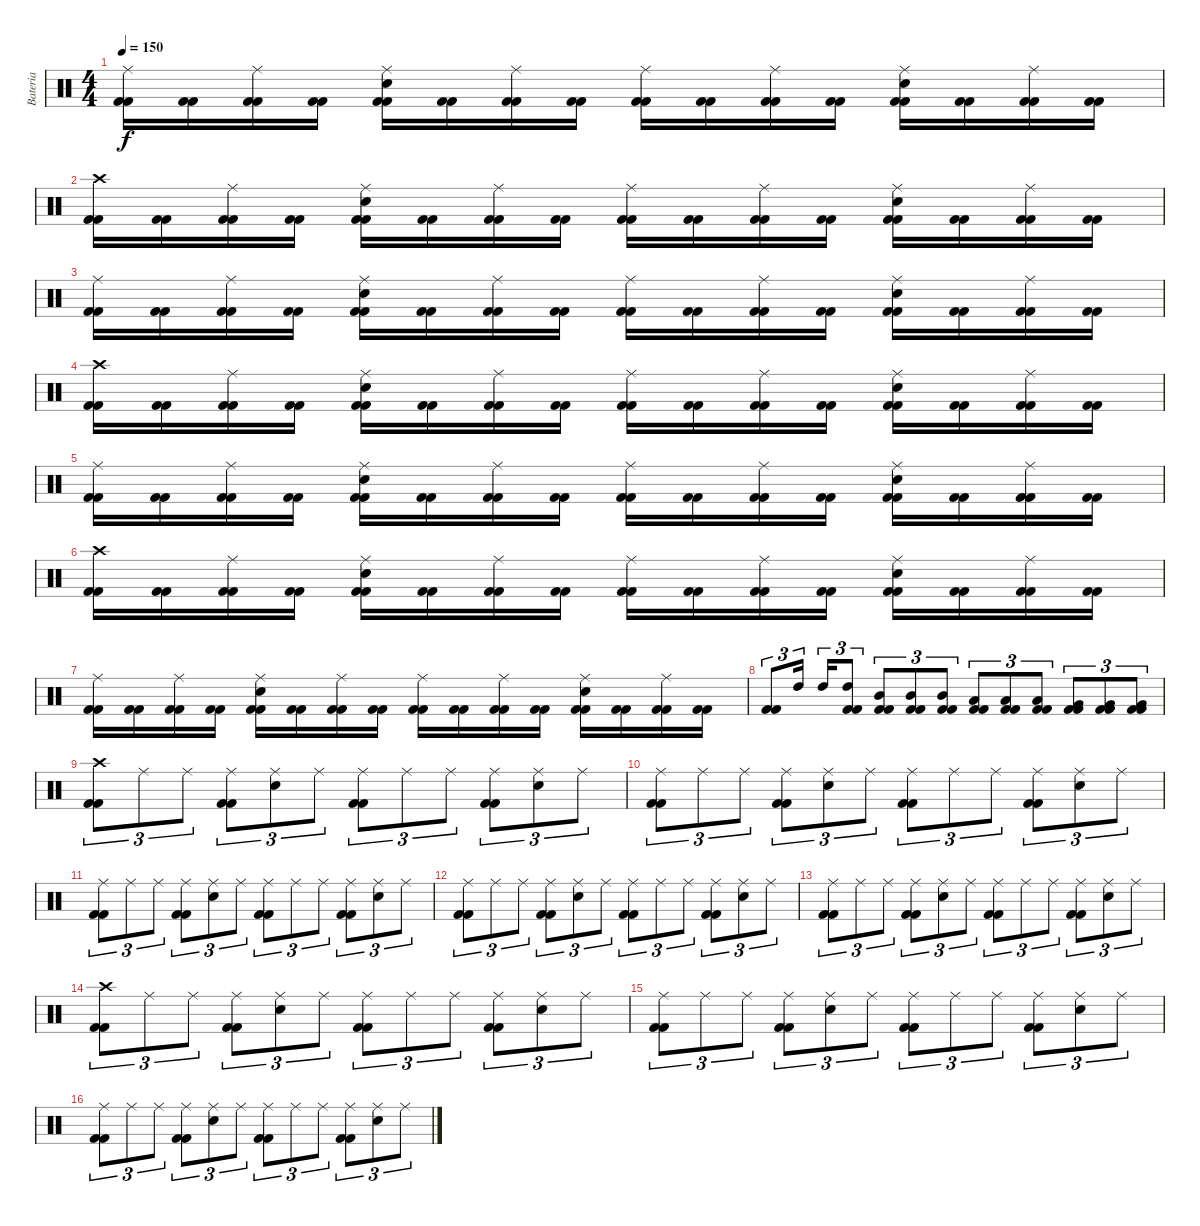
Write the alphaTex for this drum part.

\track ("Bateria" "Bateria") {instrument percussion}
\staff {score}
\articulation defaults
\ts (4 4)
\tempo 150
\clef neutral
\ks c
("Kick (hit) 2" "Kick (hit) 2" "Ride (middle)").16{dy f} ("Kick (hit) 2" "Kick (hit) 2").16 ("Kick (hit) 2" "Kick (hit) 2" "Ride (middle)").16 ("Kick (hit) 2" "Kick (hit) 2").16 ("Kick (hit) 2" "Kick (hit) 2" "Snare (hit) 2" "Ride (middle)").16 ("Kick (hit) 2" "Kick (hit) 2").16 ("Kick (hit) 2" "Kick (hit) 2" "Ride (middle)").16 ("Kick (hit) 2" "Kick (hit) 2").16 ("Kick (hit) 2" "Kick (hit) 2" "Ride (middle)").16 ("Kick (hit) 2" "Kick (hit) 2").16 ("Kick (hit) 2" "Kick (hit) 2" "Ride (middle)").16 ("Kick (hit) 2" "Kick (hit) 2").16 ("Kick (hit) 2" "Kick (hit) 2" "Snare (hit) 2" "Ride (middle)").16 ("Kick (hit) 2" "Kick (hit) 2").16 ("Kick (hit) 2" "Kick (hit) 2" "Ride (middle)").16 ("Kick (hit) 2" "Kick (hit) 2").16 |
("Kick (hit) 2" "Kick (hit) 2" "Crash high (hit)").16 ("Kick (hit) 2" "Kick (hit) 2").16 ("Kick (hit) 2" "Kick (hit) 2" "Ride (middle)").16 ("Kick (hit) 2" "Kick (hit) 2").16 ("Kick (hit) 2" "Kick (hit) 2" "Snare (hit) 2" "Ride (middle)").16 ("Kick (hit) 2" "Kick (hit) 2").16 ("Kick (hit) 2" "Kick (hit) 2" "Ride (middle)").16 ("Kick (hit) 2" "Kick (hit) 2").16 ("Kick (hit) 2" "Kick (hit) 2" "Ride (middle)").16 ("Kick (hit) 2" "Kick (hit) 2").16 ("Kick (hit) 2" "Kick (hit) 2" "Ride (middle)").16 ("Kick (hit) 2" "Kick (hit) 2").16 ("Kick (hit) 2" "Kick (hit) 2" "Snare (hit) 2" "Ride (middle)").16 ("Kick (hit) 2" "Kick (hit) 2").16 ("Kick (hit) 2" "Kick (hit) 2" "Ride (middle)").16 ("Kick (hit) 2" "Kick (hit) 2").16 |
("Kick (hit) 2" "Kick (hit) 2" "Ride (middle)").16 ("Kick (hit) 2" "Kick (hit) 2").16 ("Kick (hit) 2" "Kick (hit) 2" "Ride (middle)").16 ("Kick (hit) 2" "Kick (hit) 2").16 ("Kick (hit) 2" "Kick (hit) 2" "Snare (hit) 2" "Ride (middle)").16 ("Kick (hit) 2" "Kick (hit) 2").16 ("Kick (hit) 2" "Kick (hit) 2" "Ride (middle)").16 ("Kick (hit) 2" "Kick (hit) 2").16 ("Kick (hit) 2" "Kick (hit) 2" "Ride (middle)").16 ("Kick (hit) 2" "Kick (hit) 2").16 ("Kick (hit) 2" "Kick (hit) 2" "Ride (middle)").16 ("Kick (hit) 2" "Kick (hit) 2").16 ("Kick (hit) 2" "Kick (hit) 2" "Snare (hit) 2" "Ride (middle)").16 ("Kick (hit) 2" "Kick (hit) 2").16 ("Kick (hit) 2" "Kick (hit) 2" "Ride (middle)").16 ("Kick (hit) 2" "Kick (hit) 2").16 |
("Kick (hit) 2" "Kick (hit) 2" "Crash high (hit)").16 ("Kick (hit) 2" "Kick (hit) 2").16 ("Kick (hit) 2" "Kick (hit) 2" "Ride (middle)").16 ("Kick (hit) 2" "Kick (hit) 2").16 ("Kick (hit) 2" "Kick (hit) 2" "Snare (hit) 2" "Ride (middle)").16 ("Kick (hit) 2" "Kick (hit) 2").16 ("Kick (hit) 2" "Kick (hit) 2" "Ride (middle)").16 ("Kick (hit) 2" "Kick (hit) 2").16 ("Kick (hit) 2" "Kick (hit) 2" "Ride (middle)").16 ("Kick (hit) 2" "Kick (hit) 2").16 ("Kick (hit) 2" "Kick (hit) 2" "Ride (middle)").16 ("Kick (hit) 2" "Kick (hit) 2").16 ("Kick (hit) 2" "Kick (hit) 2" "Snare (hit) 2" "Ride (middle)").16 ("Kick (hit) 2" "Kick (hit) 2").16 ("Kick (hit) 2" "Kick (hit) 2" "Ride (middle)").16 ("Kick (hit) 2" "Kick (hit) 2").16 |
("Kick (hit) 2" "Kick (hit) 2" "Ride (middle)").16 ("Kick (hit) 2" "Kick (hit) 2").16 ("Kick (hit) 2" "Kick (hit) 2" "Ride (middle)").16 ("Kick (hit) 2" "Kick (hit) 2").16 ("Kick (hit) 2" "Kick (hit) 2" "Snare (hit) 2" "Ride (middle)").16 ("Kick (hit) 2" "Kick (hit) 2").16 ("Kick (hit) 2" "Kick (hit) 2" "Ride (middle)").16 ("Kick (hit) 2" "Kick (hit) 2").16 ("Kick (hit) 2" "Kick (hit) 2" "Ride (middle)").16 ("Kick (hit) 2" "Kick (hit) 2").16 ("Kick (hit) 2" "Kick (hit) 2" "Ride (middle)").16 ("Kick (hit) 2" "Kick (hit) 2").16 ("Kick (hit) 2" "Kick (hit) 2" "Snare (hit) 2" "Ride (middle)").16 ("Kick (hit) 2" "Kick (hit) 2").16 ("Kick (hit) 2" "Kick (hit) 2" "Ride (middle)").16 ("Kick (hit) 2" "Kick (hit) 2").16 |
("Kick (hit) 2" "Kick (hit) 2" "Crash high (hit)").16 ("Kick (hit) 2" "Kick (hit) 2").16 ("Kick (hit) 2" "Kick (hit) 2" "Ride (middle)").16 ("Kick (hit) 2" "Kick (hit) 2").16 ("Kick (hit) 2" "Kick (hit) 2" "Snare (hit) 2" "Ride (middle)").16 ("Kick (hit) 2" "Kick (hit) 2").16 ("Kick (hit) 2" "Kick (hit) 2" "Ride (middle)").16 ("Kick (hit) 2" "Kick (hit) 2").16 ("Kick (hit) 2" "Kick (hit) 2" "Ride (middle)").16 ("Kick (hit) 2" "Kick (hit) 2").16 ("Kick (hit) 2" "Kick (hit) 2" "Ride (middle)").16 ("Kick (hit) 2" "Kick (hit) 2").16 ("Kick (hit) 2" "Kick (hit) 2" "Snare (hit) 2" "Ride (middle)").16 ("Kick (hit) 2" "Kick (hit) 2").16 ("Kick (hit) 2" "Kick (hit) 2" "Ride (middle)").16 ("Kick (hit) 2" "Kick (hit) 2").16 |
("Kick (hit) 2" "Kick (hit) 2" "Ride (middle)").16 ("Kick (hit) 2" "Kick (hit) 2").16 ("Kick (hit) 2" "Kick (hit) 2" "Ride (middle)").16 ("Kick (hit) 2" "Kick (hit) 2").16 ("Kick (hit) 2" "Kick (hit) 2" "Snare (hit) 2" "Ride (middle)").16 ("Kick (hit) 2" "Kick (hit) 2").16 ("Kick (hit) 2" "Kick (hit) 2" "Ride (middle)").16 ("Kick (hit) 2" "Kick (hit) 2").16 ("Kick (hit) 2" "Kick (hit) 2" "Ride (middle)").16 ("Kick (hit) 2" "Kick (hit) 2").16 ("Kick (hit) 2" "Kick (hit) 2" "Ride (middle)").16 ("Kick (hit) 2" "Kick (hit) 2").16 ("Kick (hit) 2" "Kick (hit) 2" "Snare (hit) 2" "Ride (middle)").16 ("Kick (hit) 2" "Kick (hit) 2").16 ("Kick (hit) 2" "Kick (hit) 2" "Ride (middle)").16 ("Kick (hit) 2" "Kick (hit) 2").16 |
("Kick (hit) 2" "Kick (hit) 2").8{tu (3 2)} "High Tom (hit)".16{tu (3 2)} "High Tom (hit)".16{tu (3 2)} ("Kick (hit) 2" "Kick (hit) 2" "High Tom (hit)").8{tu (3 2)} ("Kick (hit) 2" "Kick (hit) 2" "Mid Tom (hit)").8{tu (3 2)} ("Kick (hit) 2" "Kick (hit) 2" "Mid Tom (hit)").8{tu (3 2)} ("Kick (hit) 2" "Kick (hit) 2" "Mid Tom (hit)").8{tu (3 2)} ("Kick (hit) 2" "Kick (hit) 2" "Low Tom (hit)").8{tu (3 2)} ("Kick (hit) 2" "Kick (hit) 2" "Low Tom (hit)").8{tu (3 2)} ("Kick (hit) 2" "Kick (hit) 2" "Low Tom (hit)").8{tu (3 2)} ("Kick (hit) 2" "Kick (hit) 2" "Very Low Tom (hit)").8{tu (3 2)} ("Kick (hit) 2" "Kick (hit) 2" "Very Low Tom (hit)").8{tu (3 2)} ("Kick (hit) 2" "Kick (hit) 2" "Very Low Tom (hit)").8{tu (3 2)} |
("Kick (hit) 2" "Kick (hit) 2" "Crash high (hit)").8{tu (3 2)} "Ride (middle)".8{tu (3 2)} "Ride (middle)".8{tu (3 2)} ("Kick (hit) 2" "Kick (hit) 2" "Ride (middle)").8{tu (3 2)} ("Snare (hit) 2" "Ride (middle)").8{tu (3 2)} "Ride (middle)".8{tu (3 2)} ("Kick (hit) 2" "Kick (hit) 2" "Ride (middle)").8{tu (3 2)} "Ride (middle)".8{tu (3 2)} "Ride (middle)".8{tu (3 2)} ("Kick (hit) 2" "Kick (hit) 2" "Ride (middle)").8{tu (3 2)} ("Snare (hit) 2" "Ride (middle)").8{tu (3 2)} "Ride (middle)".8{tu (3 2)} |
("Kick (hit) 2" "Kick (hit) 2" "Ride (middle)").8{tu (3 2)} "Ride (middle)".8{tu (3 2)} "Ride (middle)".8{tu (3 2)} ("Kick (hit) 2" "Kick (hit) 2" "Ride (middle)").8{tu (3 2)} ("Snare (hit) 2" "Ride (middle)").8{tu (3 2)} "Ride (middle)".8{tu (3 2)} ("Kick (hit) 2" "Kick (hit) 2" "Ride (middle)").8{tu (3 2)} "Ride (middle)".8{tu (3 2)} "Ride (middle)".8{tu (3 2)} ("Kick (hit) 2" "Kick (hit) 2" "Ride (middle)").8{tu (3 2)} ("Snare (hit) 2" "Ride (middle)").8{tu (3 2)} "Ride (middle)".8{tu (3 2)} |
("Kick (hit) 2" "Kick (hit) 2" "Ride (middle)").8{tu (3 2)} "Ride (middle)".8{tu (3 2)} "Ride (middle)".8{tu (3 2)} ("Kick (hit) 2" "Kick (hit) 2" "Ride (middle)").8{tu (3 2)} ("Snare (hit) 2" "Ride (middle)").8{tu (3 2)} "Ride (middle)".8{tu (3 2)} ("Kick (hit) 2" "Kick (hit) 2" "Ride (middle)").8{tu (3 2)} "Ride (middle)".8{tu (3 2)} "Ride (middle)".8{tu (3 2)} ("Kick (hit) 2" "Kick (hit) 2" "Ride (middle)").8{tu (3 2)} ("Snare (hit) 2" "Ride (middle)").8{tu (3 2)} "Ride (middle)".8{tu (3 2)} |
("Kick (hit) 2" "Kick (hit) 2" "Ride (middle)").8{tu (3 2)} "Ride (middle)".8{tu (3 2)} "Ride (middle)".8{tu (3 2)} ("Kick (hit) 2" "Kick (hit) 2" "Ride (middle)").8{tu (3 2)} ("Snare (hit) 2" "Ride (middle)").8{tu (3 2)} "Ride (middle)".8{tu (3 2)} ("Kick (hit) 2" "Kick (hit) 2" "Ride (middle)").8{tu (3 2)} "Ride (middle)".8{tu (3 2)} "Ride (middle)".8{tu (3 2)} ("Kick (hit) 2" "Kick (hit) 2" "Ride (middle)").8{tu (3 2)} ("Snare (hit) 2" "Ride (middle)").8{tu (3 2)} "Ride (middle)".8{tu (3 2)} |
("Kick (hit) 2" "Kick (hit) 2" "Ride (middle)").8{tu (3 2)} "Ride (middle)".8{tu (3 2)} "Ride (middle)".8{tu (3 2)} ("Kick (hit) 2" "Kick (hit) 2" "Ride (middle)").8{tu (3 2)} ("Snare (hit) 2" "Ride (middle)").8{tu (3 2)} "Ride (middle)".8{tu (3 2)} ("Kick (hit) 2" "Kick (hit) 2" "Ride (middle)").8{tu (3 2)} "Ride (middle)".8{tu (3 2)} "Ride (middle)".8{tu (3 2)} ("Kick (hit) 2" "Kick (hit) 2" "Ride (middle)").8{tu (3 2)} ("Snare (hit) 2" "Ride (middle)").8{tu (3 2)} "Ride (middle)".8{tu (3 2)} |
("Kick (hit) 2" "Kick (hit) 2" "Crash high (hit)").8{tu (3 2)} "Ride (middle)".8{tu (3 2)} "Ride (middle)".8{tu (3 2)} ("Kick (hit) 2" "Kick (hit) 2" "Ride (middle)").8{tu (3 2)} ("Snare (hit) 2" "Ride (middle)").8{tu (3 2)} "Ride (middle)".8{tu (3 2)} ("Kick (hit) 2" "Kick (hit) 2" "Ride (middle)").8{tu (3 2)} "Ride (middle)".8{tu (3 2)} "Ride (middle)".8{tu (3 2)} ("Kick (hit) 2" "Kick (hit) 2" "Ride (middle)").8{tu (3 2)} ("Snare (hit) 2" "Ride (middle)").8{tu (3 2)} "Ride (middle)".8{tu (3 2)} |
("Kick (hit) 2" "Kick (hit) 2" "Ride (middle)").8{tu (3 2)} "Ride (middle)".8{tu (3 2)} "Ride (middle)".8{tu (3 2)} ("Kick (hit) 2" "Kick (hit) 2" "Ride (middle)").8{tu (3 2)} ("Snare (hit) 2" "Ride (middle)").8{tu (3 2)} "Ride (middle)".8{tu (3 2)} ("Kick (hit) 2" "Kick (hit) 2" "Ride (middle)").8{tu (3 2)} "Ride (middle)".8{tu (3 2)} "Ride (middle)".8{tu (3 2)} ("Kick (hit) 2" "Kick (hit) 2" "Ride (middle)").8{tu (3 2)} ("Snare (hit) 2" "Ride (middle)").8{tu (3 2)} "Ride (middle)".8{tu (3 2)} |
("Kick (hit) 2" "Kick (hit) 2" "Ride (middle)").8{tu (3 2)} "Ride (middle)".8{tu (3 2)} "Ride (middle)".8{tu (3 2)} ("Kick (hit) 2" "Kick (hit) 2" "Ride (middle)").8{tu (3 2)} ("Snare (hit) 2" "Ride (middle)").8{tu (3 2)} "Ride (middle)".8{tu (3 2)} ("Kick (hit) 2" "Kick (hit) 2" "Ride (middle)").8{tu (3 2)} "Ride (middle)".8{tu (3 2)} "Ride (middle)".8{tu (3 2)} ("Kick (hit) 2" "Kick (hit) 2" "Ride (middle)").8{tu (3 2)} ("Snare (hit) 2" "Ride (middle)").8{tu (3 2)} "Ride (middle)".8{tu (3 2)}
